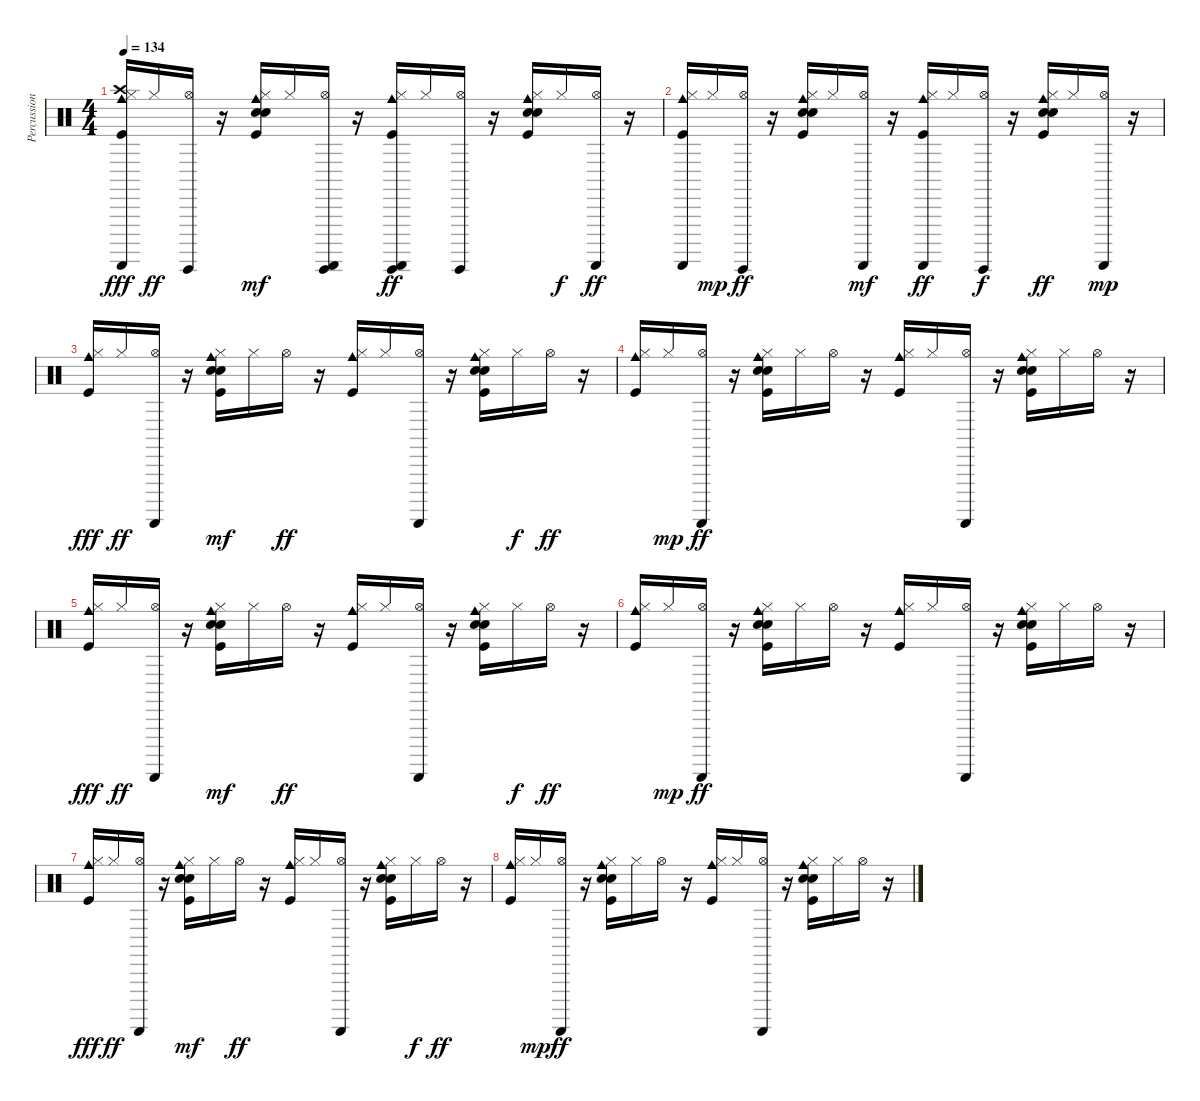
\track ("Percussion" "Percussion") {instrument percussion}
\staff {score}
\articulation defaults
\ts (4 4)
\tempo 134
\clef neutral
\ks c
("Kick (hit)" "Hi-Hat (closed)" "Crash high (hit)" "Cowbell medium (hit)" "Guiro (scrap-return)").16{dy fff} "Hi-Hat (closed)".16{dy ff} ("Hi-Hat (open)" "Guiro (hit)").16 r.16 ("Kick (hit)" "Hand Clap (hit)" "Electric Snare (hit)" "Hi-Hat (closed)" "Cowbell medium (hit)").16{dy mf} "Hi-Hat (closed)".16 ("Hi-Hat (open)" "Guiro (hit)" "Guiro (scrap-return)").16 r.16 ("Kick (hit)" "Hi-Hat (closed)" "Cowbell medium (hit)" "Guiro (hit)" "Guiro (scrap-return)").16{dy ff} "Hi-Hat (closed)".16 ("Hi-Hat (open)" "Guiro (hit)").16 r.16 ("Kick (hit)" "Hand Clap (hit)" "Electric Snare (hit)" "Hi-Hat (closed)" "Cowbell medium (hit)").16 "Hi-Hat (closed)".16{dy f} ("Hi-Hat (open)" "Guiro (scrap-return)").16{dy ff} r.16 |
("Kick (hit)" "Hi-Hat (closed)" "Cowbell medium (hit)" "Guiro (scrap-return)").16 "Hi-Hat (closed)".16{dy mp} ("Hi-Hat (open)" "Guiro (hit)").16{dy ff} r.16 ("Kick (hit)" "Hand Clap (hit)" "Electric Snare (hit)" "Hi-Hat (closed)" "Cowbell medium (hit)").16 "Hi-Hat (closed)".16 ("Hi-Hat (open)" "Guiro (scrap-return)").16{dy mf} r.16 ("Kick (hit)" "Hi-Hat (closed)" "Cowbell medium (hit)" "Guiro (scrap-return)").16{dy ff} "Hi-Hat (closed)".16 ("Hi-Hat (open)" "Guiro (hit)").16{dy f} r.16 ("Kick (hit)" "Hand Clap (hit)" "Electric Snare (hit)" "Hi-Hat (closed)" "Cowbell medium (hit)").16{dy ff} "Hi-Hat (closed)".16 ("Hi-Hat (open)" "Guiro (scrap-return)").16{dy mp} r.16 |
("Kick (hit)" "Hi-Hat (closed)" "Cowbell medium (hit)").16{dy fff} "Hi-Hat (closed)".16{dy ff} ("Hi-Hat (open)" "Guiro (scrap-return)").16 r.16 ("Kick (hit)" "Hand Clap (hit)" "Electric Snare (hit)" "Hi-Hat (closed)" "Cowbell medium (hit)").16{dy mf} "Hi-Hat (closed)".16 "Hi-Hat (open)".16{dy ff} r.16 ("Kick (hit)" "Hi-Hat (closed)" "Cowbell medium (hit)").16 "Hi-Hat (closed)".16 ("Hi-Hat (open)" "Guiro (scrap-return)").16 r.16 ("Kick (hit)" "Hand Clap (hit)" "Electric Snare (hit)" "Hi-Hat (closed)" "Cowbell medium (hit)").16 "Hi-Hat (closed)".16{dy f} "Hi-Hat (open)".16{dy ff} r.16 |
("Kick (hit)" "Hi-Hat (closed)" "Cowbell medium (hit)").16 "Hi-Hat (closed)".16{dy mp} ("Hi-Hat (open)" "Guiro (scrap-return)").16{dy ff} r.16 ("Kick (hit)" "Hand Clap (hit)" "Electric Snare (hit)" "Hi-Hat (closed)" "Cowbell medium (hit)").16 "Hi-Hat (closed)".16 "Hi-Hat (open)".16 r.16 ("Kick (hit)" "Hi-Hat (closed)" "Cowbell medium (hit)").16 "Hi-Hat (closed)".16 ("Hi-Hat (open)" "Guiro (scrap-return)").16 r.16 ("Kick (hit)" "Hand Clap (hit)" "Electric Snare (hit)" "Hi-Hat (closed)" "Cowbell medium (hit)").16 "Hi-Hat (closed)".16 "Hi-Hat (open)".16 r.16 |
("Kick (hit)" "Hi-Hat (closed)" "Cowbell medium (hit)").16{dy fff} "Hi-Hat (closed)".16{dy ff} ("Hi-Hat (open)" "Guiro (scrap-return)").16 r.16 ("Kick (hit)" "Hand Clap (hit)" "Electric Snare (hit)" "Hi-Hat (closed)" "Cowbell medium (hit)").16{dy mf} "Hi-Hat (closed)".16 "Hi-Hat (open)".16{dy ff} r.16 ("Kick (hit)" "Hi-Hat (closed)" "Cowbell medium (hit)").16 "Hi-Hat (closed)".16 ("Hi-Hat (open)" "Guiro (scrap-return)").16 r.16 ("Kick (hit)" "Hand Clap (hit)" "Electric Snare (hit)" "Hi-Hat (closed)" "Cowbell medium (hit)").16 "Hi-Hat (closed)".16{dy f} "Hi-Hat (open)".16{dy ff} r.16 |
("Kick (hit)" "Hi-Hat (closed)" "Cowbell medium (hit)").16 "Hi-Hat (closed)".16{dy mp} ("Hi-Hat (open)" "Guiro (scrap-return)").16{dy ff} r.16 ("Kick (hit)" "Hand Clap (hit)" "Electric Snare (hit)" "Hi-Hat (closed)" "Cowbell medium (hit)").16 "Hi-Hat (closed)".16 "Hi-Hat (open)".16 r.16 ("Kick (hit)" "Hi-Hat (closed)" "Cowbell medium (hit)").16 "Hi-Hat (closed)".16 ("Hi-Hat (open)" "Guiro (scrap-return)").16 r.16 ("Kick (hit)" "Hand Clap (hit)" "Electric Snare (hit)" "Hi-Hat (closed)" "Cowbell medium (hit)").16 "Hi-Hat (closed)".16 "Hi-Hat (open)".16 r.16 |
("Kick (hit)" "Hi-Hat (closed)" "Cowbell medium (hit)").16{dy fff} "Hi-Hat (closed)".16{dy ff} ("Hi-Hat (open)" "Guiro (scrap-return)").16 r.16 ("Kick (hit)" "Hand Clap (hit)" "Electric Snare (hit)" "Hi-Hat (closed)" "Cowbell medium (hit)").16{dy mf} "Hi-Hat (closed)".16 "Hi-Hat (open)".16{dy ff} r.16 ("Kick (hit)" "Hi-Hat (closed)" "Cowbell medium (hit)").16 "Hi-Hat (closed)".16 ("Hi-Hat (open)" "Guiro (scrap-return)").16 r.16 ("Kick (hit)" "Hand Clap (hit)" "Electric Snare (hit)" "Hi-Hat (closed)" "Cowbell medium (hit)").16 "Hi-Hat (closed)".16{dy f} "Hi-Hat (open)".16{dy ff} r.16 |
("Kick (hit)" "Hi-Hat (closed)" "Cowbell medium (hit)").16 "Hi-Hat (closed)".16{dy mp} ("Hi-Hat (open)" "Guiro (scrap-return)").16{dy ff} r.16 ("Kick (hit)" "Hand Clap (hit)" "Electric Snare (hit)" "Hi-Hat (closed)" "Cowbell medium (hit)").16 "Hi-Hat (closed)".16 "Hi-Hat (open)".16 r.16 ("Kick (hit)" "Hi-Hat (closed)" "Cowbell medium (hit)").16 "Hi-Hat (closed)".16 ("Hi-Hat (open)" "Guiro (scrap-return)").16 r.16 ("Kick (hit)" "Hand Clap (hit)" "Electric Snare (hit)" "Hi-Hat (closed)" "Cowbell medium (hit)").16 "Hi-Hat (closed)".16 "Hi-Hat (open)".16 r.16
